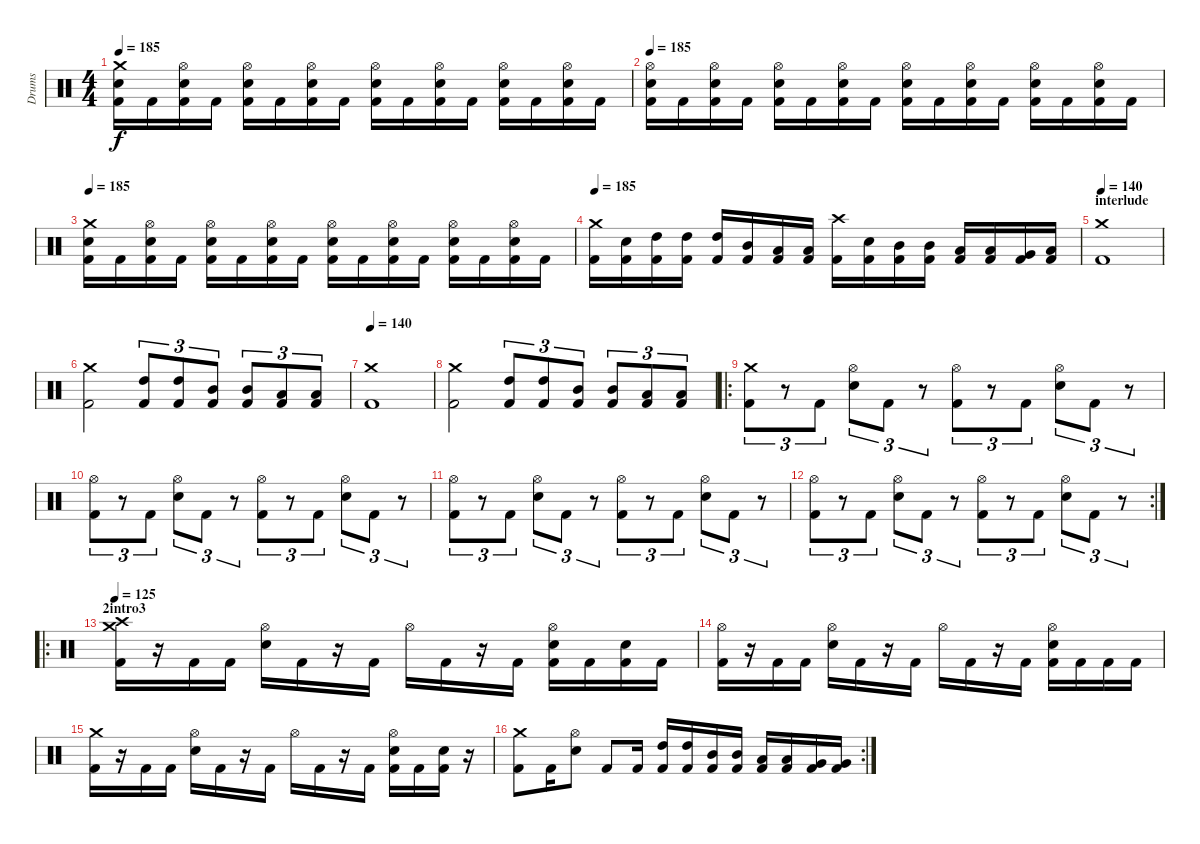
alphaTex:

\track ("Drums" "Drums") {instrument percussion}
\staff {score}
\articulation defaults
\ts (4 4)
\tempo 185
\clef neutral
\ks c
("Crash medium (hit)" "Electric Snare (hit)" "Kick (hit) 2").16{dy f} "Kick (hit) 2".16 ("Hi-Hat (open)" "Electric Snare (hit)" "Kick (hit) 2").16 "Kick (hit) 2".16 ("Hi-Hat (open)" "Electric Snare (hit)" "Kick (hit) 2").16 "Kick (hit) 2".16 ("Hi-Hat (open)" "Electric Snare (hit)" "Kick (hit) 2").16 "Kick (hit) 2".16 ("Hi-Hat (open)" "Electric Snare (hit)" "Kick (hit) 2").16 "Kick (hit) 2".16 ("Hi-Hat (open)" "Electric Snare (hit)" "Kick (hit) 2").16 "Kick (hit) 2".16 ("Hi-Hat (open)" "Electric Snare (hit)" "Kick (hit) 2").16 "Kick (hit) 2".16 ("Hi-Hat (open)" "Electric Snare (hit)" "Kick (hit) 2").16 "Kick (hit) 2".16 |
\tempo 185
("Hi-Hat (open)" "Electric Snare (hit)" "Kick (hit) 2").16 "Kick (hit) 2".16 ("Hi-Hat (open)" "Electric Snare (hit)" "Kick (hit) 2").16 "Kick (hit) 2".16 ("Hi-Hat (open)" "Electric Snare (hit)" "Kick (hit) 2").16 "Kick (hit) 2".16 ("Hi-Hat (open)" "Electric Snare (hit)" "Kick (hit) 2").16 "Kick (hit) 2".16 ("Hi-Hat (open)" "Electric Snare (hit)" "Kick (hit) 2").16 "Kick (hit) 2".16 ("Hi-Hat (open)" "Electric Snare (hit)" "Kick (hit) 2").16 "Kick (hit) 2".16 ("Hi-Hat (open)" "Electric Snare (hit)" "Kick (hit) 2").16 "Kick (hit) 2".16 ("Hi-Hat (open)" "Electric Snare (hit)" "Kick (hit) 2").16 "Kick (hit) 2".16 |
\tempo 185
("Crash medium (hit)" "Electric Snare (hit)" "Kick (hit) 2").16 "Kick (hit) 2".16 ("Hi-Hat (open)" "Electric Snare (hit)" "Kick (hit) 2").16 "Kick (hit) 2".16 ("Hi-Hat (open)" "Electric Snare (hit)" "Kick (hit) 2").16 "Kick (hit) 2".16 ("Hi-Hat (open)" "Electric Snare (hit)" "Kick (hit) 2").16 "Kick (hit) 2".16 ("Hi-Hat (open)" "Electric Snare (hit)" "Kick (hit) 2").16 "Kick (hit) 2".16 ("Hi-Hat (open)" "Electric Snare (hit)" "Kick (hit) 2").16 "Kick (hit) 2".16 ("Hi-Hat (open)" "Electric Snare (hit)" "Kick (hit) 2").16 "Kick (hit) 2".16 ("Hi-Hat (open)" "Electric Snare (hit)" "Kick (hit) 2").16 "Kick (hit) 2".16 |
\tempo 185
("Crash medium (hit)" "Kick (hit) 2").16 ("Electric Snare (hit)" "Kick (hit) 2").16 ("High Tom (hit)" "Kick (hit) 2").16 ("High Tom (hit)" "Kick (hit) 2").16 ("High Tom (hit)" "Kick (hit) 2").16 ("Mid Tom (hit)" "Kick (hit) 2").16 ("Low Tom (hit)" "Kick (hit) 2").16 ("Low Tom (hit)" "Kick (hit) 2").16 ("Crash high (hit)" "Kick (hit) 2").16 ("Electric Snare (hit)" "Kick (hit) 2").16 ("Mid Tom (hit)" "Kick (hit) 2").16 ("Mid Tom (hit)" "Kick (hit) 2").16 ("Low Tom (hit)" "Kick (hit) 2").16 ("Low Tom (hit)" "Kick (hit) 2").16 ("Very Low Tom (hit)" "Kick (hit) 2").16 ("Low Floor Tom (hit)" "Kick (hit) 2").16 |
\section ("" "interlude")
\tempo 140
("Crash medium (hit)" "Kick (hit) 2").1 |
("Crash medium (hit)" "Kick (hit) 2").2 ("High Tom (hit)" "Kick (hit) 2").8{tu (3 2)} ("High Tom (hit)" "Kick (hit) 2").8{tu (3 2)} ("Mid Tom (hit)" "Kick (hit) 2").8{tu (3 2)} ("Mid Tom (hit)" "Kick (hit) 2").8{tu (3 2)} ("Low Tom (hit)" "Kick (hit) 2").8{tu (3 2)} ("Low Tom (hit)" "Kick (hit) 2").8{tu (3 2)} |
\tempo 140
("Crash medium (hit)" "Kick (hit) 2").1 |
("Crash medium (hit)" "Kick (hit) 2").2 ("High Tom (hit)" "Kick (hit) 2").8{tu (3 2)} ("High Tom (hit)" "Kick (hit) 2").8{tu (3 2)} ("Mid Tom (hit)" "Kick (hit) 2").8{tu (3 2)} ("Mid Tom (hit)" "Kick (hit) 2").8{tu (3 2)} ("Low Tom (hit)" "Kick (hit) 2").8{tu (3 2)} ("Low Tom (hit)" "Kick (hit) 2").8{tu (3 2)} |
\ro
("Crash medium (hit)" "Kick (hit) 2").8{tu (3 2)} r.8{tu (3 2)} "Kick (hit) 2".8{tu (3 2)} ("Hi-Hat (open)" "Electric Snare (hit)").8{tu (3 2)} "Kick (hit) 2".8{tu (3 2)} r.8{tu (3 2)} ("Hi-Hat (open)" "Kick (hit) 2").8{tu (3 2)} r.8{tu (3 2)} "Kick (hit) 2".8{tu (3 2)} ("Hi-Hat (open)" "Electric Snare (hit)").8{tu (3 2)} "Kick (hit) 2".8{tu (3 2)} r.8{tu (3 2)} |
("Hi-Hat (open)" "Kick (hit) 2").8{tu (3 2)} r.8{tu (3 2)} "Kick (hit) 2".8{tu (3 2)} ("Hi-Hat (open)" "Electric Snare (hit)").8{tu (3 2)} "Kick (hit) 2".8{tu (3 2)} r.8{tu (3 2)} ("Hi-Hat (open)" "Kick (hit) 2").8{tu (3 2)} r.8{tu (3 2)} "Kick (hit) 2".8{tu (3 2)} ("Hi-Hat (open)" "Electric Snare (hit)").8{tu (3 2)} "Kick (hit) 2".8{tu (3 2)} r.8{tu (3 2)} |
("Hi-Hat (open)" "Kick (hit) 2").8{tu (3 2)} r.8{tu (3 2)} "Kick (hit) 2".8{tu (3 2)} ("Hi-Hat (open)" "Electric Snare (hit)").8{tu (3 2)} "Kick (hit) 2".8{tu (3 2)} r.8{tu (3 2)} ("Hi-Hat (open)" "Kick (hit) 2").8{tu (3 2)} r.8{tu (3 2)} "Kick (hit) 2".8{tu (3 2)} ("Hi-Hat (open)" "Electric Snare (hit)").8{tu (3 2)} "Kick (hit) 2".8{tu (3 2)} r.8{tu (3 2)} |
\rc 2
("Hi-Hat (open)" "Kick (hit) 2").8{tu (3 2)} r.8{tu (3 2)} "Kick (hit) 2".8{tu (3 2)} ("Hi-Hat (open)" "Electric Snare (hit)").8{tu (3 2)} "Kick (hit) 2".8{tu (3 2)} r.8{tu (3 2)} ("Hi-Hat (open)" "Kick (hit) 2").8{tu (3 2)} r.8{tu (3 2)} "Kick (hit) 2".8{tu (3 2)} ("Hi-Hat (open)" "Electric Snare (hit)").8{tu (3 2)} "Kick (hit) 2".8{tu (3 2)} r.8{tu (3 2)} |
\ro
\section ("" "2intro3")
\tempo 125
("Crash medium (hit)" "Crash high (hit)" "Kick (hit) 2").16 r.16 "Kick (hit) 2".16 "Kick (hit) 2".16 ("Hi-Hat (open)" "Electric Snare (hit)").16 "Kick (hit) 2".16 r.16 "Kick (hit) 2".16 "Hi-Hat (open)".16 "Kick (hit) 2".16 r.16 "Kick (hit) 2".16 ("Hi-Hat (open)" "Electric Snare (hit)" "Kick (hit) 2").16 "Kick (hit) 2".16 ("Electric Snare (hit)" "Kick (hit) 2").16 "Kick (hit) 2".16 |
("Hi-Hat (open)" "Kick (hit) 2").16 r.16 "Kick (hit) 2".16 "Kick (hit) 2".16 ("Hi-Hat (open)" "Electric Snare (hit)").16 "Kick (hit) 2".16 r.16 "Kick (hit) 2".16 "Hi-Hat (open)".16 "Kick (hit) 2".16 r.16 "Kick (hit) 2".16 ("Hi-Hat (open)" "Electric Snare (hit)" "Kick (hit) 2").16 "Kick (hit) 2".16 "Kick (hit) 2".16 "Kick (hit) 2".16 |
("Crash medium (hit)" "Kick (hit) 2").16 r.16 "Kick (hit) 2".16 "Kick (hit) 2".16 ("Hi-Hat (open)" "Electric Snare (hit)").16 "Kick (hit) 2".16 r.16 "Kick (hit) 2".16 "Hi-Hat (open)".16 "Kick (hit) 2".16 r.16 "Kick (hit) 2".16 ("Hi-Hat (open)" "Electric Snare (hit)" "Kick (hit) 2").16 "Kick (hit) 2".16 ("Electric Snare (hit)" "Kick (hit) 2").16 r.16 |
\rc 2
("Crash medium (hit)" "Kick (hit) 2").8 "Kick (hit) 2".16 ("Hi-Hat (open)" "Electric Snare (hit)").8 "Kick (hit) 2".8 "Kick (hit) 2".16 ("High Tom (hit)" "Kick (hit) 2").16 ("High Tom (hit)" "Kick (hit) 2").16 ("Mid Tom (hit)" "Kick (hit) 2").16 ("Mid Tom (hit)" "Kick (hit) 2").16 ("Low Tom (hit)" "Kick (hit) 2").16 ("Low Tom (hit)" "Kick (hit) 2").16 ("Very Low Tom (hit)" "Kick (hit) 2").16 ("Very Low Tom (hit)" "Kick (hit) 2").16
